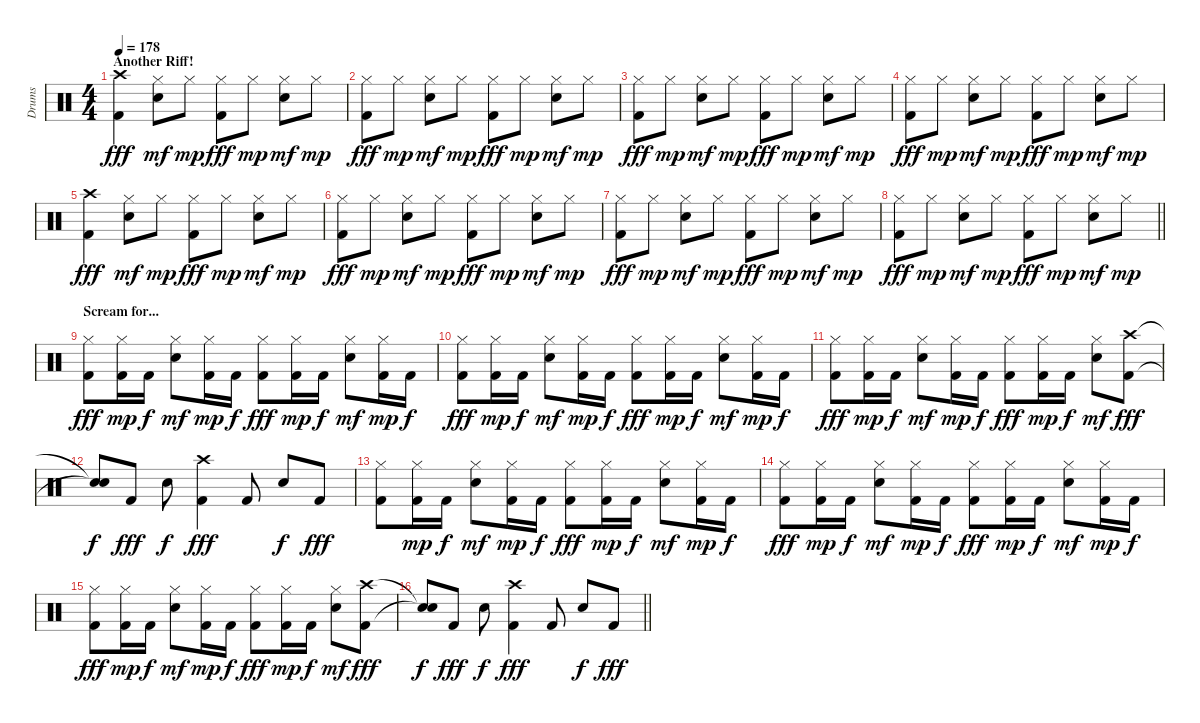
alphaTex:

\track ("Drums" "Drums") {instrument percussion}
\staff {score}
\articulation defaults
\ts (4 4)
\section ("" "Another Riff!")
\tempo 178
\clef neutral
\ks c
("Crash high (hit)" "Kick (hit) 2").4{dy fff} ("Hi-Hat (closed)" "Electric Snare (hit)").8{dy mf} "Hi-Hat (closed)".8{dy mp} ("Hi-Hat (closed)" "Kick (hit) 2").8{dy fff} "Hi-Hat (closed)".8{dy mp} ("Hi-Hat (closed)" "Electric Snare (hit)").8{dy mf} "Hi-Hat (closed)".8{dy mp} |
("Hi-Hat (closed)" "Kick (hit) 2").8{dy fff} "Hi-Hat (closed)".8{dy mp} ("Hi-Hat (closed)" "Electric Snare (hit)").8{dy mf} "Hi-Hat (closed)".8{dy mp} ("Hi-Hat (closed)" "Kick (hit) 2").8{dy fff} "Hi-Hat (closed)".8{dy mp} ("Hi-Hat (closed)" "Electric Snare (hit)").8{dy mf} "Hi-Hat (closed)".8{dy mp} |
("Hi-Hat (closed)" "Kick (hit) 2").8{dy fff} "Hi-Hat (closed)".8{dy mp} ("Hi-Hat (closed)" "Electric Snare (hit)").8{dy mf} "Hi-Hat (closed)".8{dy mp} ("Hi-Hat (closed)" "Kick (hit) 2").8{dy fff} "Hi-Hat (closed)".8{dy mp} ("Hi-Hat (closed)" "Electric Snare (hit)").8{dy mf} "Hi-Hat (closed)".8{dy mp} |
("Hi-Hat (closed)" "Kick (hit) 2").8{dy fff} "Hi-Hat (closed)".8{dy mp} ("Hi-Hat (closed)" "Electric Snare (hit)").8{dy mf} "Hi-Hat (closed)".8{dy mp} ("Hi-Hat (closed)" "Kick (hit) 2").8{dy fff} "Hi-Hat (closed)".8{dy mp} ("Hi-Hat (closed)" "Electric Snare (hit)").8{dy mf} "Hi-Hat (closed)".8{dy mp} |
("Crash high (hit)" "Kick (hit) 2").4{dy fff} ("Hi-Hat (closed)" "Electric Snare (hit)").8{dy mf} "Hi-Hat (closed)".8{dy mp} ("Hi-Hat (closed)" "Kick (hit) 2").8{dy fff} "Hi-Hat (closed)".8{dy mp} ("Hi-Hat (closed)" "Electric Snare (hit)").8{dy mf} "Hi-Hat (closed)".8{dy mp} |
("Hi-Hat (closed)" "Kick (hit) 2").8{dy fff} "Hi-Hat (closed)".8{dy mp} ("Hi-Hat (closed)" "Electric Snare (hit)").8{dy mf} "Hi-Hat (closed)".8{dy mp} ("Hi-Hat (closed)" "Kick (hit) 2").8{dy fff} "Hi-Hat (closed)".8{dy mp} ("Hi-Hat (closed)" "Electric Snare (hit)").8{dy mf} "Hi-Hat (closed)".8{dy mp} |
("Hi-Hat (closed)" "Kick (hit) 2").8{dy fff} "Hi-Hat (closed)".8{dy mp} ("Hi-Hat (closed)" "Electric Snare (hit)").8{dy mf} "Hi-Hat (closed)".8{dy mp} ("Hi-Hat (closed)" "Kick (hit) 2").8{dy fff} "Hi-Hat (closed)".8{dy mp} ("Hi-Hat (closed)" "Electric Snare (hit)").8{dy mf} "Hi-Hat (closed)".8{dy mp} |
\barLineRight lightlight
("Hi-Hat (closed)" "Kick (hit) 2").8{dy fff} "Hi-Hat (closed)".8{dy mp} ("Hi-Hat (closed)" "Electric Snare (hit)").8{dy mf} "Hi-Hat (closed)".8{dy mp} ("Hi-Hat (closed)" "Kick (hit) 2").8{dy fff} "Hi-Hat (closed)".8{dy mp} ("Hi-Hat (closed)" "Electric Snare (hit)").8{dy mf} "Hi-Hat (closed)".8{dy mp} |
\section ("" "Scream for...")
("Hi-Hat (closed)" "Kick (hit) 2").8{dy fff} ("Hi-Hat (closed)" "Kick (hit) 2").16{dy mp} "Kick (hit) 2".16{dy f} ("Hi-Hat (closed)" "Electric Snare (hit)").8{dy mf} ("Hi-Hat (closed)" "Kick (hit) 2").16{dy mp} "Kick (hit) 2".16{dy f} ("Hi-Hat (closed)" "Kick (hit) 2").8{dy fff} ("Hi-Hat (closed)" "Kick (hit) 2").16{dy mp} "Kick (hit) 2".16{dy f} ("Hi-Hat (closed)" "Electric Snare (hit)").8{dy mf} ("Hi-Hat (closed)" "Kick (hit) 2").16{dy mp} "Kick (hit) 2".16{dy f} |
("Hi-Hat (closed)" "Kick (hit) 2").8{dy fff} ("Hi-Hat (closed)" "Kick (hit) 2").16{dy mp} "Kick (hit) 2".16{dy f} ("Hi-Hat (closed)" "Electric Snare (hit)").8{dy mf} ("Hi-Hat (closed)" "Kick (hit) 2").16{dy mp} "Kick (hit) 2".16{dy f} ("Hi-Hat (closed)" "Kick (hit) 2").8{dy fff} ("Hi-Hat (closed)" "Kick (hit) 2").16{dy mp} "Kick (hit) 2".16{dy f} ("Hi-Hat (closed)" "Electric Snare (hit)").8{dy mf} ("Hi-Hat (closed)" "Kick (hit) 2").16{dy mp} "Kick (hit) 2".16{dy f} |
("Hi-Hat (closed)" "Kick (hit) 2").8{dy fff} ("Hi-Hat (closed)" "Kick (hit) 2").16{dy mp} "Kick (hit) 2".16{dy f} ("Hi-Hat (closed)" "Electric Snare (hit)").8{dy mf} ("Hi-Hat (closed)" "Kick (hit) 2").16{dy mp} "Kick (hit) 2".16{dy f} ("Hi-Hat (closed)" "Kick (hit) 2").8{dy fff} ("Hi-Hat (closed)" "Kick (hit) 2").16{dy mp} "Kick (hit) 2".16{dy f} ("Hi-Hat (closed)" "Electric Snare (hit)").8{dy mf} ("Crash high (hit)" "Kick (hit) 2").8{dy fff} |
("Snare (hit)"{t} "Snare (hit)"{t}).8{dy f} "Kick (hit) 2".8{dy fff} "Electric Snare (hit)".8{dy f} ("Crash high (hit)" "Kick (hit) 2").4{dy fff} "Kick (hit) 2".8 "Electric Snare (hit)".8{dy f} "Kick (hit) 2".8{dy fff} |
("Hi-Hat (closed)" "Kick (hit) 2").8 ("Hi-Hat (closed)" "Kick (hit) 2").16{dy mp} "Kick (hit) 2".16{dy f} ("Hi-Hat (closed)" "Electric Snare (hit)").8{dy mf} ("Hi-Hat (closed)" "Kick (hit) 2").16{dy mp} "Kick (hit) 2".16{dy f} ("Hi-Hat (closed)" "Kick (hit) 2").8{dy fff} ("Hi-Hat (closed)" "Kick (hit) 2").16{dy mp} "Kick (hit) 2".16{dy f} ("Hi-Hat (closed)" "Electric Snare (hit)").8{dy mf} ("Hi-Hat (closed)" "Kick (hit) 2").16{dy mp} "Kick (hit) 2".16{dy f} |
("Hi-Hat (closed)" "Kick (hit) 2").8{dy fff} ("Hi-Hat (closed)" "Kick (hit) 2").16{dy mp} "Kick (hit) 2".16{dy f} ("Hi-Hat (closed)" "Electric Snare (hit)").8{dy mf} ("Hi-Hat (closed)" "Kick (hit) 2").16{dy mp} "Kick (hit) 2".16{dy f} ("Hi-Hat (closed)" "Kick (hit) 2").8{dy fff} ("Hi-Hat (closed)" "Kick (hit) 2").16{dy mp} "Kick (hit) 2".16{dy f} ("Hi-Hat (closed)" "Electric Snare (hit)").8{dy mf} ("Hi-Hat (closed)" "Kick (hit) 2").16{dy mp} "Kick (hit) 2".16{dy f} |
("Hi-Hat (closed)" "Kick (hit) 2").8{dy fff} ("Hi-Hat (closed)" "Kick (hit) 2").16{dy mp} "Kick (hit) 2".16{dy f} ("Hi-Hat (closed)" "Electric Snare (hit)").8{dy mf} ("Hi-Hat (closed)" "Kick (hit) 2").16{dy mp} "Kick (hit) 2".16{dy f} ("Hi-Hat (closed)" "Kick (hit) 2").8{dy fff} ("Hi-Hat (closed)" "Kick (hit) 2").16{dy mp} "Kick (hit) 2".16{dy f} ("Hi-Hat (closed)" "Electric Snare (hit)").8{dy mf} ("Crash high (hit)" "Kick (hit) 2").8{dy fff} |
\barLineRight lightlight
("Snare (hit)"{t} "Snare (hit)"{t}).8{dy f} "Kick (hit) 2".8{dy fff} "Electric Snare (hit)".8{dy f} ("Crash high (hit)" "Kick (hit) 2").4{dy fff} "Kick (hit) 2".8 "Electric Snare (hit)".8{dy f} "Kick (hit) 2".8{dy fff}
